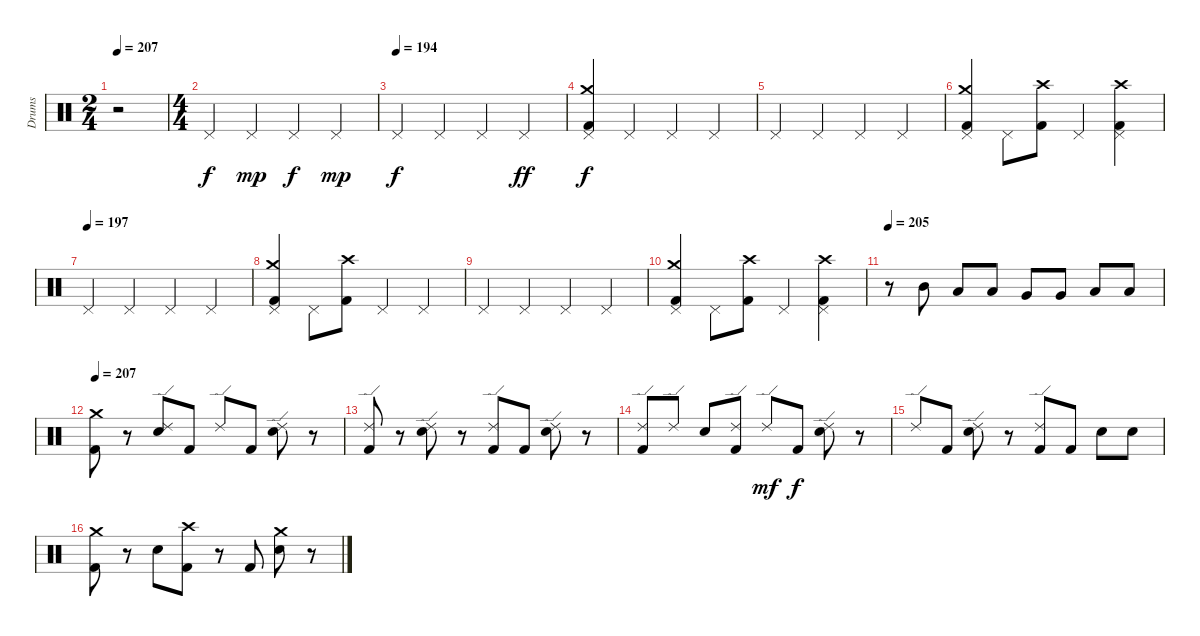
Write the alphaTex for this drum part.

\track ("Drums" "Drums") {instrument percussion}
\staff {score}
\articulation defaults
\ts (2 4)
\tempo 207
\tempo 192
\tempo 207
\clef neutral
\ks c
r.2{dy f} |
\ts (4 4)
"Pedal Hi-Hat (hit)".4 "Pedal Hi-Hat (hit)".4{dy mp} "Pedal Hi-Hat (hit)".4{dy f} "Pedal Hi-Hat (hit)".4{dy mp} |
\tempo (194)
"Pedal Hi-Hat (hit)".4{dy f} "Pedal Hi-Hat (hit)".4 "Pedal Hi-Hat (hit)".4 "Pedal Hi-Hat (hit)".4{dy ff} |
("Crash medium (hit)" "Pedal Hi-Hat (hit)" "Kick (hit) 2").4{dy f} "Pedal Hi-Hat (hit)".4 "Pedal Hi-Hat (hit)".4 "Pedal Hi-Hat (hit)".4 |
"Pedal Hi-Hat (hit)".4 "Pedal Hi-Hat (hit)".4 "Pedal Hi-Hat (hit)".4 "Pedal Hi-Hat (hit)".4 |
("Crash medium (hit)" "Pedal Hi-Hat (hit)" "Kick (hit) 2").4 "Pedal Hi-Hat (hit)".8 ("Crash high (hit)" "Kick (hit) 2").8 "Pedal Hi-Hat (hit)".4 ("Crash high (hit)" "Pedal Hi-Hat (hit)" "Kick (hit) 2").4 |
\tempo (197)
"Pedal Hi-Hat (hit)".4 "Pedal Hi-Hat (hit)".4 "Pedal Hi-Hat (hit)".4 "Pedal Hi-Hat (hit)".4 |
("Crash medium (hit)" "Pedal Hi-Hat (hit)" "Kick (hit) 2").4 "Pedal Hi-Hat (hit)".8 ("Crash high (hit)" "Kick (hit) 2").8 "Pedal Hi-Hat (hit)".4 "Pedal Hi-Hat (hit)".4 |
"Pedal Hi-Hat (hit)".4 "Pedal Hi-Hat (hit)".4 "Pedal Hi-Hat (hit)".4 "Pedal Hi-Hat (hit)".4 |
("Crash medium (hit)" "Pedal Hi-Hat (hit)" "Kick (hit) 2").4 "Pedal Hi-Hat (hit)".8 ("Crash high (hit)" "Kick (hit) 2").8 "Pedal Hi-Hat (hit)".4 ("Crash high (hit)" "Pedal Hi-Hat (hit)" "Kick (hit) 2").4 |
\tempo 205
r.8 "Mid Tom (hit)".8 "Low Tom (hit)".8 "Low Tom (hit)".8 "Very Low Tom (hit)".8 "Very Low Tom (hit)".8 "Low Floor Tom (hit)".8 "Low Floor Tom (hit)".8 |
\tempo 207
("Crash medium (hit)" "Kick (hit) 2").8 r.8 ("Ride (edge) 2" "Snare (hit) 2").8 "Kick (hit) 2".8 "Ride (edge) 2".8 "Kick (hit) 2".8 ("Ride (edge) 2" "Snare (hit) 2").8 r.8 |
("Ride (edge) 2" "Kick (hit) 2").8 r.8 ("Ride (edge) 2" "Snare (hit) 2").8 r.8 ("Ride (edge) 2" "Kick (hit) 2").8 "Kick (hit) 2".8 ("Ride (edge) 2" "Snare (hit) 2").8 r.8 |
("Ride (edge) 2" "Kick (hit) 2").8 "Ride (edge) 2".8 "Snare (hit) 2".8 ("Ride (edge) 2" "Kick (hit) 2").8 "Ride (edge) 2".8{dy mf} "Kick (hit) 2".8{dy f} ("Ride (edge) 2" "Snare (hit) 2").8 r.8 |
"Ride (edge) 2".8 "Kick (hit) 2".8 ("Ride (edge) 2" "Snare (hit) 2").8 r.8 ("Ride (edge) 2" "Kick (hit) 2").8 "Kick (hit) 2".8 "Snare (hit) 2".8 "Snare (hit) 2".8 |
("Crash medium (hit)" "Kick (hit) 2").8 r.8 "Snare (hit) 2".8 ("Crash high (hit)" "Kick (hit) 2").8 r.8 "Kick (hit) 2".8 ("Crash medium (hit)" "Snare (hit) 2").8 r.8
